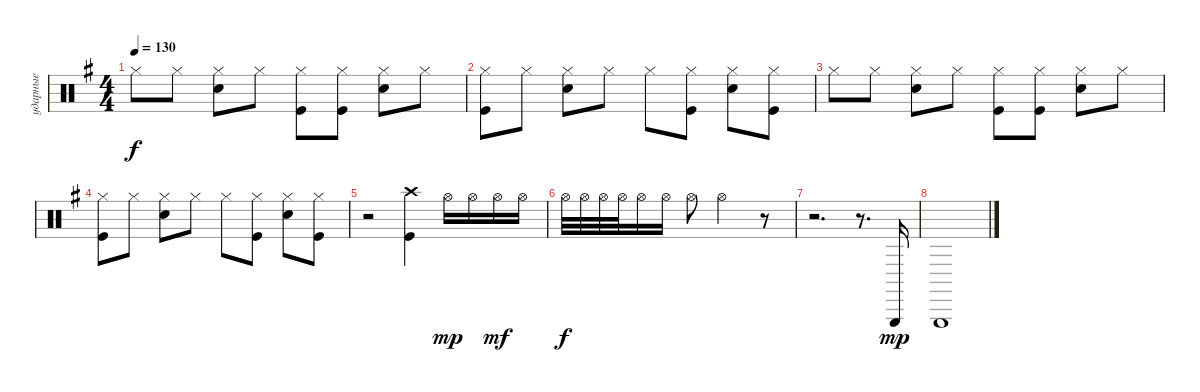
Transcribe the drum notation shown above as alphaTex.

\track ("ударные" "ударные") {instrument percussion}
\staff {score}
\articulation defaults
\ts (4 4)
\tempo 130
\clef neutral
\ks eminor "Hi-Hat (closed)".8{dy f} "Hi-Hat (closed)".8
("Snare (hit) 2" "Hi-Hat (closed)").8 "Hi-Hat (closed)".8 ("Kick (hit)" "Hi-Hat (closed)").8 ("Hi-Hat (closed)" "Kick (hit)").8 ("Snare (hit) 2" "Hi-Hat (closed)").8 "Hi-Hat (closed)".8 |
("Kick (hit)" "Hi-Hat (closed)").8 "Hi-Hat (closed)".8 ("Snare (hit) 2" "Hi-Hat (closed)").8 "Hi-Hat (closed)".8 "Hi-Hat (closed)".8 ("Hi-Hat (closed)" "Kick (hit)").8 ("Snare (hit) 2" "Hi-Hat (closed)").8 ("Hi-Hat (closed)" "Kick (hit)").8 |
"Hi-Hat (closed)".8 "Hi-Hat (closed)".8 ("Snare (hit) 2" "Hi-Hat (closed)").8 "Hi-Hat (closed)".8 ("Kick (hit)" "Hi-Hat (closed)").8 ("Hi-Hat (closed)" "Kick (hit)").8 ("Snare (hit) 2" "Hi-Hat (closed)").8 "Hi-Hat (closed)".8 |
("Kick (hit)" "Hi-Hat (closed)").8 "Hi-Hat (closed)".8 ("Snare (hit) 2" "Hi-Hat (closed)").8 "Hi-Hat (closed)".8 "Hi-Hat (closed)".8 ("Hi-Hat (closed)" "Kick (hit)").8 ("Snare (hit) 2" "Hi-Hat (closed)").8 ("Hi-Hat (closed)" "Kick (hit)").8 |
r.2 ("Kick (hit)" "Crash high (hit)").4 "Hi-Hat (open)".16{dy mp} "Hi-Hat (open)".16 "Hi-Hat (open)".16{dy mf} "Hi-Hat (open)".16 |
"Hi-Hat (open)".32{dy f} "Hi-Hat (open)".32 "Hi-Hat (open)".32 "Hi-Hat (open)".32 "Hi-Hat (open)".16 "Hi-Hat (open)".16 "Hi-Hat (open)".8 "Hi-Hat (open)".2 r.8 |
r.2{d} r.8{d} "Triangle (hit)".16{dy mp} |
"Triangle (hit)".1
